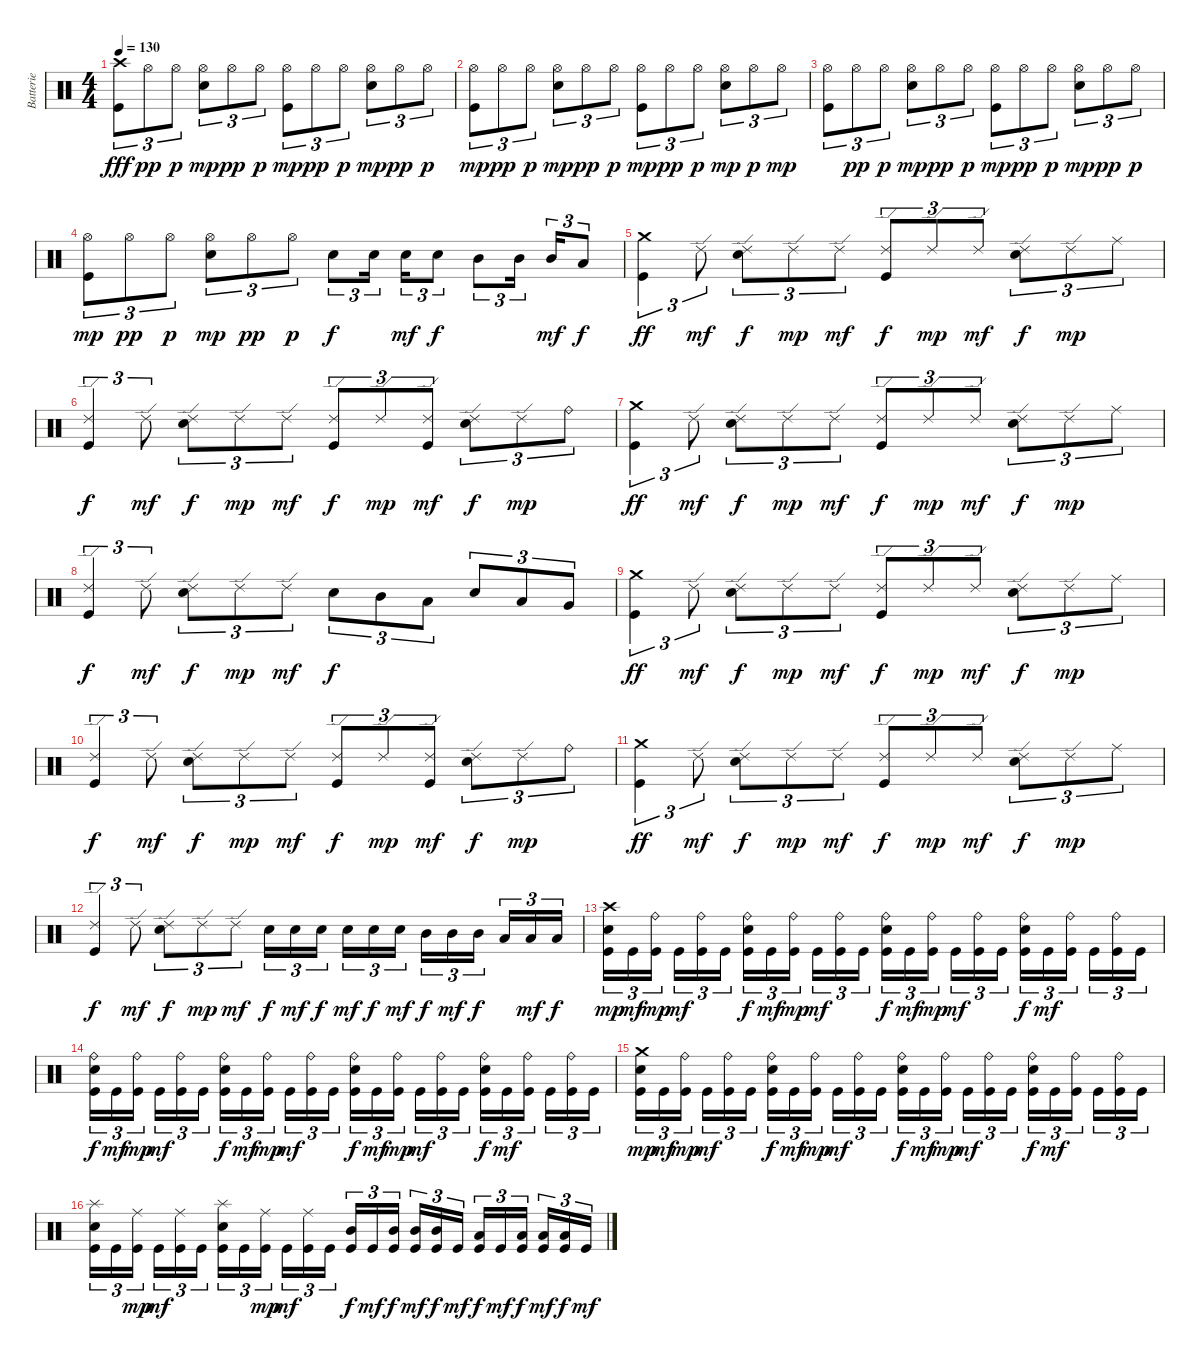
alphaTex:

\track ("Batterie" "Batterie") {instrument percussion}
\staff {score}
\articulation defaults
\ts (4 4)
\tempo 130
\clef neutral
\ks c
("Crash high (hit)" "Kick (hit)").8{tu (3 2) dy fff} "Hi-Hat (open)".8{tu (3 2) dy pp} "Hi-Hat (open)".8{tu (3 2) dy p} ("Hi-Hat (open)" "Snare (hit) 2").8{tu (3 2) dy mp} "Hi-Hat (open)".8{tu (3 2) dy pp} "Hi-Hat (open)".8{tu (3 2) dy p} ("Hi-Hat (open)" "Kick (hit)").8{tu (3 2) dy mp} "Hi-Hat (open)".8{tu (3 2) dy pp} "Hi-Hat (open)".8{tu (3 2) dy p} ("Hi-Hat (open)" "Snare (hit) 2").8{tu (3 2) dy mp} "Hi-Hat (open)".8{tu (3 2) dy pp} "Hi-Hat (open)".8{tu (3 2) dy p} |
("Hi-Hat (open)" "Kick (hit)").8{tu (3 2) dy mp} "Hi-Hat (open)".8{tu (3 2) dy pp} "Hi-Hat (open)".8{tu (3 2) dy p} ("Hi-Hat (open)" "Snare (hit) 2").8{tu (3 2) dy mp} "Hi-Hat (open)".8{tu (3 2) dy pp} "Hi-Hat (open)".8{tu (3 2) dy p} ("Hi-Hat (open)" "Kick (hit)").8{tu (3 2) dy mp} "Hi-Hat (open)".8{tu (3 2) dy pp} "Hi-Hat (open)".8{tu (3 2) dy p} ("Hi-Hat (open)" "Snare (hit) 2").8{tu (3 2) dy mp} "Hi-Hat (open)".8{tu (3 2) dy p} "Hi-Hat (open)".8{tu (3 2) dy mp} |
("Hi-Hat (open)" "Kick (hit)").8{tu (3 2)} "Hi-Hat (open)".8{tu (3 2) dy pp} "Hi-Hat (open)".8{tu (3 2) dy p} ("Hi-Hat (open)" "Snare (hit) 2").8{tu (3 2) dy mp} "Hi-Hat (open)".8{tu (3 2) dy pp} "Hi-Hat (open)".8{tu (3 2) dy p} ("Hi-Hat (open)" "Kick (hit)").8{tu (3 2) dy mp} "Hi-Hat (open)".8{tu (3 2) dy pp} "Hi-Hat (open)".8{tu (3 2) dy p} ("Hi-Hat (open)" "Snare (hit) 2").8{tu (3 2) dy mp} "Hi-Hat (open)".8{tu (3 2) dy pp} "Hi-Hat (open)".8{tu (3 2) dy p} |
("Hi-Hat (open)" "Kick (hit)").8{tu (3 2) dy mp} "Hi-Hat (open)".8{tu (3 2) dy pp} "Hi-Hat (open)".8{tu (3 2) dy p} ("Hi-Hat (open)" "Snare (hit) 2").8{tu (3 2) dy mp} "Hi-Hat (open)".8{tu (3 2) dy pp} "Hi-Hat (open)".8{tu (3 2) dy p} "Snare (hit) 2".8{tu (3 2) dy f} "Snare (hit) 2".16{tu (3 2)} "Snare (hit) 2".16{tu (3 2) dy mf} "Snare (hit) 2".8{tu (3 2) dy f} "Mid Tom (hit)".8{tu (3 2)} "Mid Tom (hit)".16{tu (3 2)} "Mid Tom (hit)".16{tu (3 2) dy mf} "Low Tom (hit)".8{tu (3 2) dy f} |
("Crash medium (hit)" "Kick (hit)").4{tu (3 2) dy ff} "Ride (edge) 2".8{tu (3 2) dy mf} ("Ride (edge) 2" "Snare (hit) 2").8{tu (3 2) dy f} "Ride (edge) 2".8{tu (3 2) dy mp} "Ride (edge) 2".8{tu (3 2) dy mf} ("Ride (edge) 2" "Kick (hit)").8{tu (3 2) dy f} "Ride (edge) 2".8{tu (3 2) dy mp} "Ride (edge) 2".8{tu (3 2) dy mf} ("Ride (edge) 2" "Snare (hit) 2").8{tu (3 2) dy f} "Ride (edge) 2".8{tu (3 2) dy mp} "Ride (middle)".8{tu (3 2)} |
("Ride (edge) 2" "Kick (hit)").4{tu (3 2) dy f} "Ride (edge) 2".8{tu (3 2) dy mf} ("Ride (edge) 2" "Snare (hit) 2").8{tu (3 2) dy f} "Ride (edge) 2".8{tu (3 2) dy mp} "Ride (edge) 2".8{tu (3 2) dy mf} ("Ride (edge) 2" "Kick (hit)").8{tu (3 2) dy f} "Ride (edge) 2".8{tu (3 2) dy mp} ("Ride (edge) 2" "Kick (hit)").8{tu (3 2) dy mf} ("Ride (edge) 2" "Snare (hit) 2").8{tu (3 2) dy f} "Ride (edge) 2".8{tu (3 2) dy mp} "Ride (bell)".8{tu (3 2)} |
("Crash medium (hit)" "Kick (hit)").4{tu (3 2) dy ff} "Ride (edge) 2".8{tu (3 2) dy mf} ("Ride (edge) 2" "Snare (hit) 2").8{tu (3 2) dy f} "Ride (edge) 2".8{tu (3 2) dy mp} "Ride (edge) 2".8{tu (3 2) dy mf} ("Ride (edge) 2" "Kick (hit)").8{tu (3 2) dy f} "Ride (edge) 2".8{tu (3 2) dy mp} "Ride (edge) 2".8{tu (3 2) dy mf} ("Ride (edge) 2" "Snare (hit) 2").8{tu (3 2) dy f} "Ride (edge) 2".8{tu (3 2) dy mp} "Ride (middle)".8{tu (3 2)} |
("Ride (edge) 2" "Kick (hit)").4{tu (3 2) dy f} "Ride (edge) 2".8{tu (3 2) dy mf} ("Ride (edge) 2" "Snare (hit) 2").8{tu (3 2) dy f} "Ride (edge) 2".8{tu (3 2) dy mp} "Ride (edge) 2".8{tu (3 2) dy mf} "Snare (hit) 2".8{tu (3 2) dy f} "Mid Tom (hit)".8{tu (3 2)} "Low Tom (hit)".8{tu (3 2)} "Snare (hit) 2".8{tu (3 2)} "Low Tom (hit)".8{tu (3 2)} "Very Low Tom (hit)".8{tu (3 2)} |
("Crash medium (hit)" "Kick (hit)").4{tu (3 2) dy ff} "Ride (edge) 2".8{tu (3 2) dy mf} ("Ride (edge) 2" "Snare (hit) 2").8{tu (3 2) dy f} "Ride (edge) 2".8{tu (3 2) dy mp} "Ride (edge) 2".8{tu (3 2) dy mf} ("Ride (edge) 2" "Kick (hit)").8{tu (3 2) dy f} "Ride (edge) 2".8{tu (3 2) dy mp} "Ride (edge) 2".8{tu (3 2) dy mf} ("Ride (edge) 2" "Snare (hit) 2").8{tu (3 2) dy f} "Ride (edge) 2".8{tu (3 2) dy mp} "Ride (middle)".8{tu (3 2)} |
("Ride (edge) 2" "Kick (hit)").4{tu (3 2) dy f} "Ride (edge) 2".8{tu (3 2) dy mf} ("Ride (edge) 2" "Snare (hit) 2").8{tu (3 2) dy f} "Ride (edge) 2".8{tu (3 2) dy mp} "Ride (edge) 2".8{tu (3 2) dy mf} ("Ride (edge) 2" "Kick (hit)").8{tu (3 2) dy f} "Ride (edge) 2".8{tu (3 2) dy mp} ("Ride (edge) 2" "Kick (hit)").8{tu (3 2) dy mf} ("Ride (edge) 2" "Snare (hit) 2").8{tu (3 2) dy f} "Ride (edge) 2".8{tu (3 2) dy mp} "Ride (bell)".8{tu (3 2)} |
("Crash medium (hit)" "Kick (hit)").4{tu (3 2) dy ff} "Ride (edge) 2".8{tu (3 2) dy mf} ("Ride (edge) 2" "Snare (hit) 2").8{tu (3 2) dy f} "Ride (edge) 2".8{tu (3 2) dy mp} "Ride (edge) 2".8{tu (3 2) dy mf} ("Ride (edge) 2" "Kick (hit)").8{tu (3 2) dy f} "Ride (edge) 2".8{tu (3 2) dy mp} "Ride (edge) 2".8{tu (3 2) dy mf} ("Ride (edge) 2" "Snare (hit) 2").8{tu (3 2) dy f} "Ride (edge) 2".8{tu (3 2) dy mp} "Ride (middle)".8{tu (3 2)} |
("Ride (edge) 2" "Kick (hit)").4{tu (3 2) dy f} "Ride (edge) 2".8{tu (3 2) dy mf} ("Ride (edge) 2" "Snare (hit) 2").8{tu (3 2) dy f} "Ride (edge) 2".8{tu (3 2) dy mp} "Ride (edge) 2".8{tu (3 2) dy mf} "Snare (hit) 2".16{tu (3 2) dy f} "Snare (hit) 2".16{tu (3 2) dy mf} "Snare (hit) 2".16{tu (3 2) dy f} "Snare (hit) 2".16{tu (3 2) dy mf} "Snare (hit) 2".16{tu (3 2) dy f} "Snare (hit) 2".16{tu (3 2) dy mf} "Mid Tom (hit)".16{tu (3 2) dy f} "Mid Tom (hit)".16{tu (3 2) dy mf} "Mid Tom (hit)".16{tu (3 2) dy f} "Low Tom (hit)".16{tu (3 2)} "Low Tom (hit)".16{tu (3 2) dy mf} "Low Tom (hit)".16{tu (3 2) dy f} |
("Crash high (hit)" "Snare (hit) 2" "Kick (hit)").16{tu (3 2) dy mp} "Kick (hit)".16{tu (3 2) dy mf} ("Ride (bell)" "Kick (hit)").16{tu (3 2) dy mp} "Kick (hit)".16{tu (3 2) dy mf} ("Ride (bell)" "Kick (hit)").16{tu (3 2)} "Kick (hit)".16{tu (3 2)} ("Ride (bell)" "Snare (hit) 2" "Kick (hit)").16{tu (3 2) dy f} "Kick (hit)".16{tu (3 2) dy mf} ("Ride (bell)" "Kick (hit)").16{tu (3 2) dy mp} "Kick (hit)".16{tu (3 2) dy mf} ("Ride (bell)" "Kick (hit)").16{tu (3 2)} "Kick (hit)".16{tu (3 2)} ("Ride (bell)" "Snare (hit) 2" "Kick (hit)").16{tu (3 2) dy f} "Kick (hit)".16{tu (3 2) dy mf} ("Ride (bell)" "Kick (hit)").16{tu (3 2) dy mp} "Kick (hit)".16{tu (3 2) dy mf} ("Ride (bell)" "Kick (hit)").16{tu (3 2)} "Kick (hit)".16{tu (3 2)} ("Ride (bell)" "Snare (hit) 2" "Kick (hit)").16{tu (3 2) dy f} "Kick (hit)".16{tu (3 2) dy mf} ("Ride (bell)" "Kick (hit)").16{tu (3 2)} "Kick (hit)".16{tu (3 2)} ("Ride (bell)" "Kick (hit)").16{tu (3 2)} "Kick (hit)".16{tu (3 2)} |
("Ride (bell)" "Snare (hit) 2" "Kick (hit)").16{tu (3 2) dy f} "Kick (hit)".16{tu (3 2) dy mf} ("Ride (bell)" "Kick (hit)").16{tu (3 2) dy mp} "Kick (hit)".16{tu (3 2) dy mf} ("Ride (bell)" "Kick (hit)").16{tu (3 2)} "Kick (hit)".16{tu (3 2)} ("Ride (bell)" "Snare (hit) 2" "Kick (hit)").16{tu (3 2) dy f} "Kick (hit)".16{tu (3 2) dy mf} ("Ride (bell)" "Kick (hit)").16{tu (3 2) dy mp} "Kick (hit)".16{tu (3 2) dy mf} ("Ride (bell)" "Kick (hit)").16{tu (3 2)} "Kick (hit)".16{tu (3 2)} ("Ride (bell)" "Snare (hit) 2" "Kick (hit)").16{tu (3 2) dy f} "Kick (hit)".16{tu (3 2) dy mf} ("Ride (bell)" "Kick (hit)").16{tu (3 2) dy mp} "Kick (hit)".16{tu (3 2) dy mf} ("Ride (bell)" "Kick (hit)").16{tu (3 2)} "Kick (hit)".16{tu (3 2)} ("Ride (bell)" "Snare (hit) 2" "Kick (hit)").16{tu (3 2) dy f} "Kick (hit)".16{tu (3 2) dy mf} ("Ride (bell)" "Kick (hit)").16{tu (3 2)} "Kick (hit)".16{tu (3 2)} ("Ride (bell)" "Kick (hit)").16{tu (3 2)} "Kick (hit)".16{tu (3 2)} |
("Crash medium (hit)" "Snare (hit) 2" "Kick (hit)").16{tu (3 2) dy mp} "Kick (hit)".16{tu (3 2) dy mf} ("Ride (bell)" "Kick (hit)").16{tu (3 2) dy mp} "Kick (hit)".16{tu (3 2) dy mf} ("Ride (bell)" "Kick (hit)").16{tu (3 2)} "Kick (hit)".16{tu (3 2)} ("Ride (bell)" "Snare (hit) 2" "Kick (hit)").16{tu (3 2) dy f} "Kick (hit)".16{tu (3 2) dy mf} ("Ride (bell)" "Kick (hit)").16{tu (3 2) dy mp} "Kick (hit)".16{tu (3 2) dy mf} ("Ride (bell)" "Kick (hit)").16{tu (3 2)} "Kick (hit)".16{tu (3 2)} ("Ride (bell)" "Snare (hit) 2" "Kick (hit)").16{tu (3 2) dy f} "Kick (hit)".16{tu (3 2) dy mf} ("Ride (bell)" "Kick (hit)").16{tu (3 2) dy mp} "Kick (hit)".16{tu (3 2) dy mf} ("Ride (bell)" "Kick (hit)").16{tu (3 2)} "Kick (hit)".16{tu (3 2)} ("Ride (bell)" "Snare (hit) 2" "Kick (hit)").16{tu (3 2) dy f} "Kick (hit)".16{tu (3 2) dy mf} ("Ride (bell)" "Kick (hit)").16{tu (3 2)} "Kick (hit)".16{tu (3 2)} ("Ride (bell)" "Kick (hit)").16{tu (3 2)} "Kick (hit)".16{tu (3 2)} |
("Splash (hit)" "Snare (hit) 2" "Kick (hit)").16{tu (3 2)} "Kick (hit)".16{tu (3 2)} ("Ride (middle)" "Kick (hit)").16{tu (3 2) dy mp} "Kick (hit)".16{tu (3 2) dy mf} ("Ride (middle)" "Kick (hit)").16{tu (3 2)} "Kick (hit)".16{tu (3 2)} ("Splash (hit)" "Snare (hit) 2" "Kick (hit)").16{tu (3 2)} "Kick (hit)".16{tu (3 2)} ("Ride (middle)" "Kick (hit)").16{tu (3 2) dy mp} "Kick (hit)".16{tu (3 2) dy mf} ("Ride (middle)" "Kick (hit)").16{tu (3 2)} "Kick (hit)".16{tu (3 2)} ("Mid Tom (hit)" "Kick (hit)").16{tu (3 2) dy f} "Kick (hit)".16{tu (3 2) dy mf} ("Mid Tom (hit)" "Kick (hit)").16{tu (3 2) dy f} ("Mid Tom (hit)" "Kick (hit)").16{tu (3 2) dy mf} ("Mid Tom (hit)" "Kick (hit)").16{tu (3 2) dy f} "Kick (hit)".16{tu (3 2) dy mf} ("Low Tom (hit)" "Kick (hit)").16{tu (3 2) dy f} "Kick (hit)".16{tu (3 2) dy mf} ("Low Tom (hit)" "Kick (hit)").16{tu (3 2) dy f} ("Low Tom (hit)" "Kick (hit)").16{tu (3 2) dy mf} ("Low Tom (hit)" "Kick (hit)").16{tu (3 2) dy f} "Kick (hit)".16{tu (3 2) dy mf}
